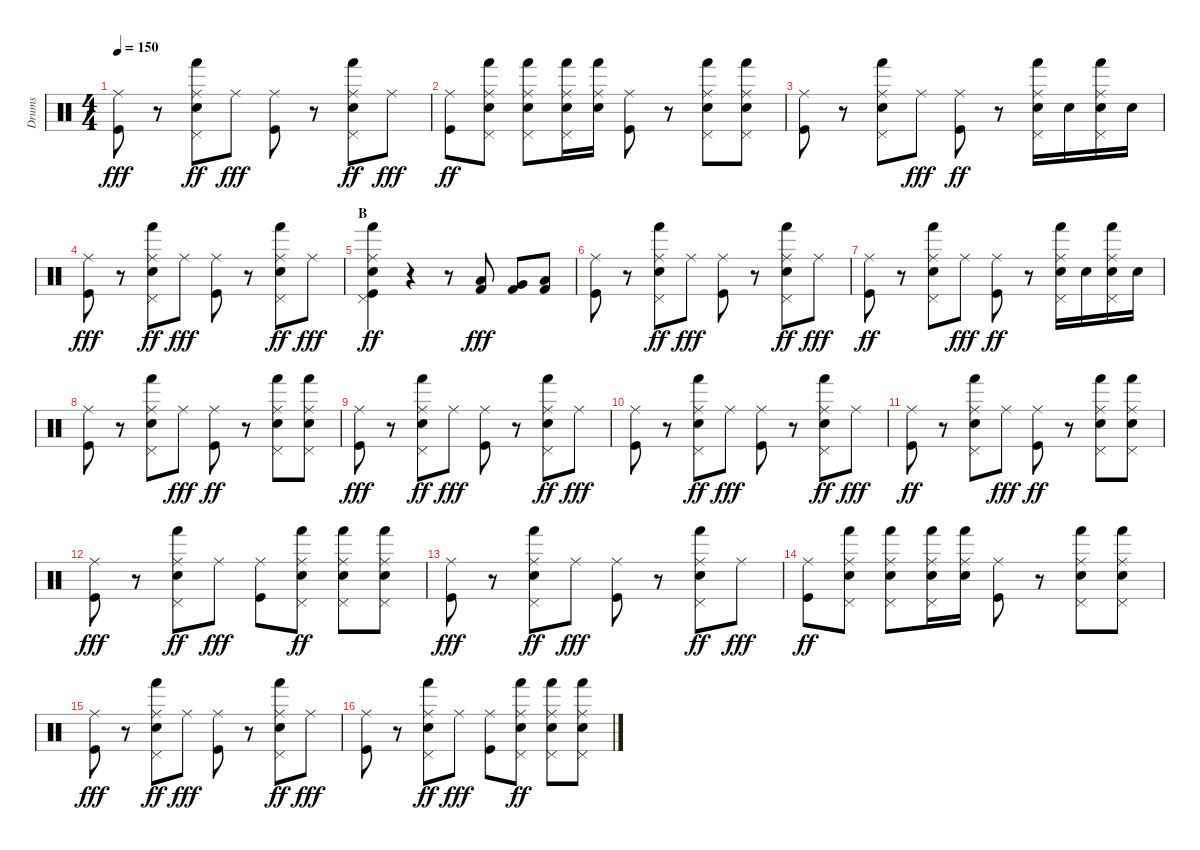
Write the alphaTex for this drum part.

\track ("Drums" "Drums") {instrument percussion}
\staff {score}
\articulation defaults
\ts (4 4)
\tempo 150
\clef neutral
\ks c
("Ride (middle)" "Kick (hit)").8{dy fff} r.8 ("Ride (middle)" "Pedal Hi-Hat (hit)" "Hand (hit)" "Electric Snare (hit)").8{dy ff} "Ride (middle)".8{dy fff} ("Ride (middle)" "Kick (hit)").8 r.8 ("Ride (middle)" "Pedal Hi-Hat (hit)" "Hand (hit)" "Electric Snare (hit)").8{dy ff} "Ride (middle)".8{dy fff} |
("Ride (middle)" "Kick (hit)").8{dy ff} ("Ride (middle)" "Pedal Hi-Hat (hit)" "Hand (hit)" "Electric Snare (hit)").8 ("Ride (middle)" "Pedal Hi-Hat (hit)" "Hand (hit)" "Electric Snare (hit)").8 ("Ride (middle)" "Pedal Hi-Hat (hit)" "Hand (hit)" "Electric Snare (hit)").16 ("Ride (middle)" "Hand (hit)" "Electric Snare (hit)").16 ("Ride (middle)" "Kick (hit)").8 r.8 ("Ride (middle)" "Pedal Hi-Hat (hit)" "Hand (hit)" "Electric Snare (hit)").8 ("Ride (middle)" "Pedal Hi-Hat (hit)" "Hand (hit)" "Electric Snare (hit)").8 |
("Ride (middle)" "Kick (hit)").8 r.8 ("Ride (middle)" "Pedal Hi-Hat (hit)" "Hand (hit)" "Electric Snare (hit)").8 "Ride (middle)".8{dy fff} ("Ride (middle)" "Kick (hit)").8{dy ff} r.8 ("Ride (middle)" "Pedal Hi-Hat (hit)" "Hand (hit)" "Electric Snare (hit)").16 "Electric Snare (hit)".16 ("Ride (middle)" "Pedal Hi-Hat (hit)" "Hand (hit)" "Electric Snare (hit)").16 "Electric Snare (hit)".16 |
("Ride (middle)" "Kick (hit)").8{dy fff} r.8 ("Ride (middle)" "Pedal Hi-Hat (hit)" "Hand (hit)" "Electric Snare (hit)").8{dy ff} "Ride (middle)".8{dy fff} ("Ride (middle)" "Kick (hit)").8 r.8 ("Ride (middle)" "Pedal Hi-Hat (hit)" "Hand (hit)" "Electric Snare (hit)").8{dy ff} "Ride (middle)".8{dy fff} |
\section ("" "B")
("Ride (middle)" "Pedal Hi-Hat (hit)" "Hand (hit)" "Electric Snare (hit)" "Kick (hit)").4{dy ff} r.4 r.8 ("Low Floor Tom (hit)" "Kick (hit) 2").8{dy fff} ("Very Low Tom (hit)" "Kick (hit) 2").8 ("Low Tom (hit)" "Kick (hit) 2").8 |
("Ride (middle)" "Kick (hit)").8 r.8 ("Ride (middle)" "Pedal Hi-Hat (hit)" "Hand (hit)" "Electric Snare (hit)").8{dy ff} "Ride (middle)".8{dy fff} ("Ride (middle)" "Kick (hit)").8 r.8 ("Ride (middle)" "Pedal Hi-Hat (hit)" "Hand (hit)" "Electric Snare (hit)").8{dy ff} "Ride (middle)".8{dy fff} |
("Ride (middle)" "Kick (hit)").8{dy ff} r.8 ("Ride (middle)" "Pedal Hi-Hat (hit)" "Hand (hit)" "Electric Snare (hit)").8 "Ride (middle)".8{dy fff} ("Ride (middle)" "Kick (hit)").8{dy ff} r.8 ("Ride (middle)" "Pedal Hi-Hat (hit)" "Hand (hit)" "Electric Snare (hit)").16 "Electric Snare (hit)".16 ("Ride (middle)" "Pedal Hi-Hat (hit)" "Hand (hit)" "Electric Snare (hit)").16 "Electric Snare (hit)".16 |
("Ride (middle)" "Kick (hit)").8 r.8 ("Ride (middle)" "Pedal Hi-Hat (hit)" "Hand (hit)" "Electric Snare (hit)").8 "Ride (middle)".8{dy fff} ("Ride (middle)" "Kick (hit)").8{dy ff} r.8 ("Ride (middle)" "Pedal Hi-Hat (hit)" "Hand (hit)" "Electric Snare (hit)").8 ("Ride (middle)" "Pedal Hi-Hat (hit)" "Hand (hit)" "Electric Snare (hit)").8 |
("Ride (middle)" "Kick (hit)").8{dy fff} r.8 ("Ride (middle)" "Pedal Hi-Hat (hit)" "Hand (hit)" "Electric Snare (hit)").8{dy ff} "Ride (middle)".8{dy fff} ("Ride (middle)" "Kick (hit)").8 r.8 ("Ride (middle)" "Pedal Hi-Hat (hit)" "Hand (hit)" "Electric Snare (hit)").8{dy ff} "Ride (middle)".8{dy fff} |
("Ride (middle)" "Kick (hit)").8 r.8 ("Ride (middle)" "Pedal Hi-Hat (hit)" "Hand (hit)" "Electric Snare (hit)").8{dy ff} "Ride (middle)".8{dy fff} ("Ride (middle)" "Kick (hit)").8 r.8 ("Ride (middle)" "Pedal Hi-Hat (hit)" "Hand (hit)" "Electric Snare (hit)").8{dy ff} "Ride (middle)".8{dy fff} |
("Ride (middle)" "Kick (hit)").8{dy ff} r.8 ("Ride (middle)" "Pedal Hi-Hat (hit)" "Hand (hit)" "Electric Snare (hit)").8 "Ride (middle)".8{dy fff} ("Ride (middle)" "Kick (hit)").8{dy ff} r.8 ("Ride (middle)" "Pedal Hi-Hat (hit)" "Hand (hit)" "Electric Snare (hit)").8 ("Ride (middle)" "Pedal Hi-Hat (hit)" "Hand (hit)" "Electric Snare (hit)").8 |
("Ride (middle)" "Kick (hit)").8{dy fff} r.8 ("Ride (middle)" "Pedal Hi-Hat (hit)" "Hand (hit)" "Electric Snare (hit)").8{dy ff} "Ride (middle)".8{dy fff} ("Ride (middle)" "Kick (hit)").8 ("Ride (middle)" "Pedal Hi-Hat (hit)" "Hand (hit)" "Electric Snare (hit)").8{dy ff} ("Ride (middle)" "Pedal Hi-Hat (hit)" "Hand (hit)" "Electric Snare (hit)").8 ("Ride (middle)" "Pedal Hi-Hat (hit)" "Hand (hit)" "Electric Snare (hit)").8 |
("Ride (middle)" "Kick (hit)").8{dy fff} r.8 ("Ride (middle)" "Pedal Hi-Hat (hit)" "Hand (hit)" "Electric Snare (hit)").8{dy ff} "Ride (middle)".8{dy fff} ("Ride (middle)" "Kick (hit)").8 r.8 ("Ride (middle)" "Pedal Hi-Hat (hit)" "Hand (hit)" "Electric Snare (hit)").8{dy ff} "Ride (middle)".8{dy fff} |
("Ride (middle)" "Kick (hit)").8{dy ff} ("Ride (middle)" "Pedal Hi-Hat (hit)" "Hand (hit)" "Electric Snare (hit)").8 ("Ride (middle)" "Pedal Hi-Hat (hit)" "Hand (hit)" "Electric Snare (hit)").8 ("Ride (middle)" "Pedal Hi-Hat (hit)" "Hand (hit)" "Electric Snare (hit)").16 ("Ride (middle)" "Hand (hit)" "Electric Snare (hit)").16 ("Ride (middle)" "Kick (hit)").8 r.8 ("Ride (middle)" "Pedal Hi-Hat (hit)" "Hand (hit)" "Electric Snare (hit)").8 ("Ride (middle)" "Pedal Hi-Hat (hit)" "Hand (hit)" "Electric Snare (hit)").8 |
("Ride (middle)" "Kick (hit)").8{dy fff} r.8 ("Ride (middle)" "Pedal Hi-Hat (hit)" "Hand (hit)" "Electric Snare (hit)").8{dy ff} "Ride (middle)".8{dy fff} ("Ride (middle)" "Kick (hit)").8 r.8 ("Ride (middle)" "Pedal Hi-Hat (hit)" "Hand (hit)" "Electric Snare (hit)").8{dy ff} "Ride (middle)".8{dy fff} |
("Ride (middle)" "Kick (hit)").8 r.8 ("Ride (middle)" "Pedal Hi-Hat (hit)" "Hand (hit)" "Electric Snare (hit)").8{dy ff} "Ride (middle)".8{dy fff} ("Ride (middle)" "Kick (hit)").8 ("Ride (middle)" "Pedal Hi-Hat (hit)" "Hand (hit)" "Electric Snare (hit)").8{dy ff} ("Ride (middle)" "Pedal Hi-Hat (hit)" "Hand (hit)" "Electric Snare (hit)").8 ("Ride (middle)" "Pedal Hi-Hat (hit)" "Hand (hit)" "Electric Snare (hit)").8
